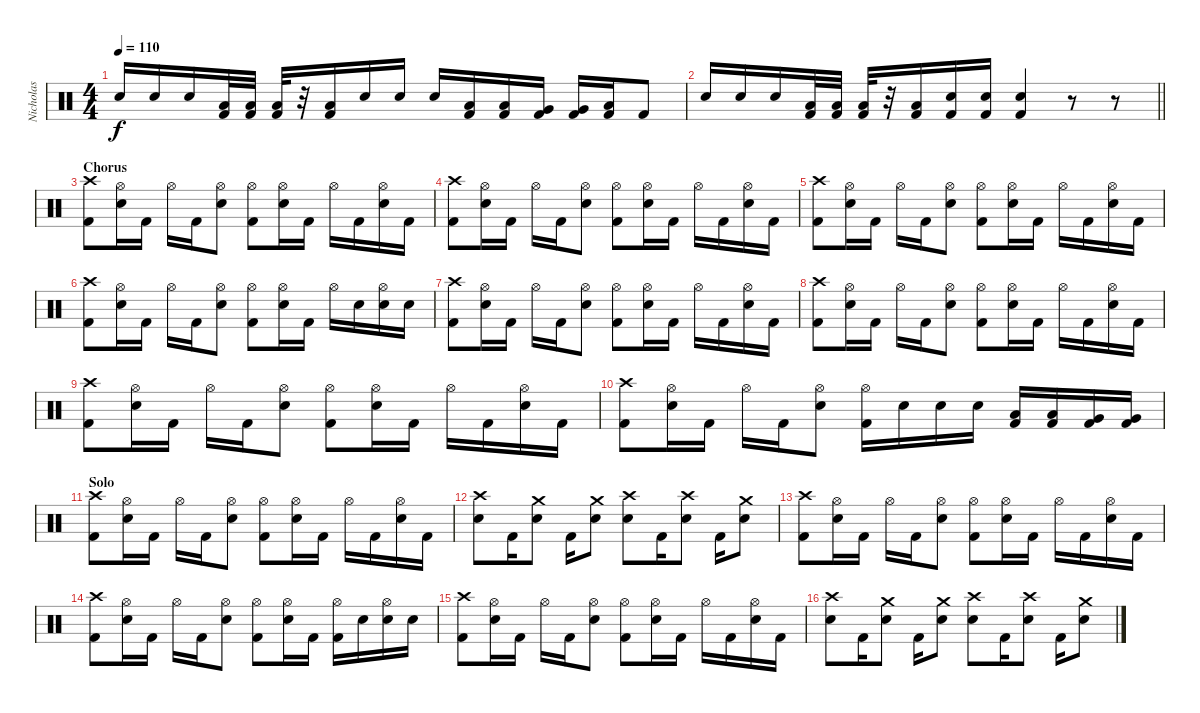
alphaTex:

\track ("Nicholas" "Nicholas") {instrument percussion}
\staff {score}
\articulation defaults
\ts (4 4)
\tempo 110
\clef neutral
\ks c "Snare (hit) 2".16{dy f} "Snare (hit) 2".16 "Snare (hit) 2".16
("Kick (hit) 2" "Low Tom (hit)").32 ("Kick (hit) 2" "Low Tom (hit)").32 ("Kick (hit) 2" "Low Tom (hit)").32 r.32 ("Kick (hit) 2" "Low Tom (hit)").16 "Snare (hit) 2".16 "Snare (hit) 2".16 "Snare (hit) 2".16 ("Kick (hit) 2" "Low Tom (hit)").16 ("Kick (hit) 2" "Low Tom (hit)").16 ("Kick (hit) 2" "Very Low Tom (hit)").16 ("Kick (hit) 2" "Very Low Tom (hit)").16 ("Kick (hit) 2" "Low Floor Tom (hit)").16 "Kick (hit) 2".8 |
\barLineRight lightlight "Snare (hit) 2".16 "Snare (hit) 2".16 "Snare (hit) 2".16
("Kick (hit) 2" "Low Tom (hit)").32 ("Kick (hit) 2" "Low Tom (hit)").32 ("Kick (hit) 2" "Low Tom (hit)").32 r.32 ("Kick (hit) 2" "Low Tom (hit)").16 ("Kick (hit) 2" "Snare (hit) 2").16 ("Kick (hit) 2" "Snare (hit) 2").16 ("Kick (hit) 2" "Snare (hit) 2").4 r.8 r.8 |
\section ("" "Chorus")
("Crash high (hit)" "Kick (hit) 2").8 ("Hi-Hat (open)" "Snare (hit) 2").16 "Kick (hit) 2".16 "Hi-Hat (open)".16 "Kick (hit) 2".16 ("Hi-Hat (open)" "Snare (hit) 2").8 ("Hi-Hat (open)" "Kick (hit) 2").8 ("Hi-Hat (open)" "Snare (hit) 2").16 "Kick (hit) 2".16 "Hi-Hat (open)".16 "Kick (hit) 2".16 ("Hi-Hat (open)" "Snare (hit) 2").16 "Kick (hit) 2".16 |
("Crash high (hit)" "Kick (hit) 2").8 ("Hi-Hat (open)" "Snare (hit) 2").16 "Kick (hit) 2".16 "Hi-Hat (open)".16 "Kick (hit) 2".16 ("Hi-Hat (open)" "Snare (hit) 2").8 ("Hi-Hat (open)" "Kick (hit) 2").8 ("Hi-Hat (open)" "Snare (hit) 2").16 "Kick (hit) 2".16 "Hi-Hat (open)".16 "Kick (hit) 2".16 ("Hi-Hat (open)" "Snare (hit) 2").16 "Kick (hit) 2".16 |
("Crash high (hit)" "Kick (hit) 2").8 ("Hi-Hat (open)" "Snare (hit) 2").16 "Kick (hit) 2".16 "Hi-Hat (open)".16 "Kick (hit) 2".16 ("Hi-Hat (open)" "Snare (hit) 2").8 ("Hi-Hat (open)" "Kick (hit) 2").8 ("Hi-Hat (open)" "Snare (hit) 2").16 "Kick (hit) 2".16 "Hi-Hat (open)".16 "Kick (hit) 2".16 ("Hi-Hat (open)" "Snare (hit) 2").16 "Kick (hit) 2".16 |
("Crash high (hit)" "Kick (hit) 2").8 ("Hi-Hat (open)" "Snare (hit) 2").16 "Kick (hit) 2".16 "Hi-Hat (open)".16 "Kick (hit) 2".16 ("Hi-Hat (open)" "Snare (hit) 2").8 ("Hi-Hat (open)" "Kick (hit) 2").8 ("Hi-Hat (open)" "Snare (hit) 2").16 "Kick (hit) 2".16 "Hi-Hat (open)".16 "Snare (hit) 2".16 ("Hi-Hat (open)" "Snare (hit) 2").16 "Snare (hit) 2".16 |
("Crash high (hit)" "Kick (hit) 2").8 ("Hi-Hat (open)" "Snare (hit) 2").16 "Kick (hit) 2".16 "Hi-Hat (open)".16 "Kick (hit) 2".16 ("Hi-Hat (open)" "Snare (hit) 2").8 ("Hi-Hat (open)" "Kick (hit) 2").8 ("Hi-Hat (open)" "Snare (hit) 2").16 "Kick (hit) 2".16 "Hi-Hat (open)".16 "Kick (hit) 2".16 ("Hi-Hat (open)" "Snare (hit) 2").16 "Kick (hit) 2".16 |
("Crash high (hit)" "Kick (hit) 2").8 ("Hi-Hat (open)" "Snare (hit) 2").16 "Kick (hit) 2".16 "Hi-Hat (open)".16 "Kick (hit) 2".16 ("Hi-Hat (open)" "Snare (hit) 2").8 ("Hi-Hat (open)" "Kick (hit) 2").8 ("Hi-Hat (open)" "Snare (hit) 2").16 "Kick (hit) 2".16 "Hi-Hat (open)".16 "Kick (hit) 2".16 ("Hi-Hat (open)" "Snare (hit) 2").16 "Kick (hit) 2".16 |
("Crash high (hit)" "Kick (hit) 2").8 ("Hi-Hat (open)" "Snare (hit) 2").16 "Kick (hit) 2".16 "Hi-Hat (open)".16 "Kick (hit) 2".16 ("Hi-Hat (open)" "Snare (hit) 2").8 ("Hi-Hat (open)" "Kick (hit) 2").8 ("Hi-Hat (open)" "Snare (hit) 2").16 "Kick (hit) 2".16 "Hi-Hat (open)".16 "Kick (hit) 2".16 ("Hi-Hat (open)" "Snare (hit) 2").16 "Kick (hit) 2".16 |
("Crash high (hit)" "Kick (hit) 2").8 ("Hi-Hat (open)" "Snare (hit) 2").16 "Kick (hit) 2".16 "Hi-Hat (open)".16 "Kick (hit) 2".16 ("Hi-Hat (open)" "Snare (hit) 2").8 ("Hi-Hat (open)" "Kick (hit) 2").16 "Snare (hit) 2".16 "Snare (hit) 2".16 "Snare (hit) 2".16 ("Kick (hit) 2" "Low Tom (hit)").16 ("Kick (hit) 2" "Low Tom (hit)").16 ("Kick (hit) 2" "Very Low Tom (hit)").16 ("Kick (hit) 2" "Very Low Tom (hit)").16 |
\section ("" "Solo")
("Crash high (hit)" "Kick (hit) 2").8 ("Hi-Hat (open)" "Snare (hit) 2").16 "Kick (hit) 2".16 "Hi-Hat (open)".16 "Kick (hit) 2".16 ("Hi-Hat (open)" "Snare (hit) 2").8 ("Hi-Hat (open)" "Kick (hit) 2").8 ("Hi-Hat (open)" "Snare (hit) 2").16 "Kick (hit) 2".16 "Hi-Hat (open)".16 "Kick (hit) 2".16 ("Hi-Hat (open)" "Snare (hit) 2").16 "Kick (hit) 2".16 |
("Crash high (hit)" "Snare (hit) 2").8 "Kick (hit) 2".16 ("Crash medium (hit)" "Snare (hit) 2").8 "Kick (hit) 2".16 ("Crash medium (hit)" "Snare (hit) 2").8 ("Crash high (hit)" "Snare (hit) 2").8 "Kick (hit) 2".16 ("Crash high (hit)" "Snare (hit) 2").8 "Kick (hit) 2".16 ("Crash medium (hit)" "Snare (hit) 2").8 |
("Crash high (hit)" "Kick (hit) 2").8 ("Hi-Hat (open)" "Snare (hit) 2").16 "Kick (hit) 2".16 "Hi-Hat (open)".16 "Kick (hit) 2".16 ("Hi-Hat (open)" "Snare (hit) 2").8 ("Hi-Hat (open)" "Kick (hit) 2").8 ("Hi-Hat (open)" "Snare (hit) 2").16 "Kick (hit) 2".16 "Hi-Hat (open)".16 "Kick (hit) 2".16 ("Hi-Hat (open)" "Snare (hit) 2").16 "Kick (hit) 2".16 |
("Crash high (hit)" "Kick (hit) 2").8 ("Hi-Hat (open)" "Snare (hit) 2").16 "Kick (hit) 2".16 "Hi-Hat (open)".16 "Kick (hit) 2".16 ("Hi-Hat (open)" "Snare (hit) 2").8 ("Hi-Hat (open)" "Kick (hit) 2").8 ("Hi-Hat (open)" "Snare (hit) 2").16 "Kick (hit) 2".16 ("Hi-Hat (open)" "Kick (hit) 2").16 "Snare (hit) 2".16 ("Hi-Hat (open)" "Snare (hit) 2").16 "Snare (hit) 2".16 |
("Crash high (hit)" "Kick (hit) 2").8 ("Hi-Hat (open)" "Snare (hit) 2").16 "Kick (hit) 2".16 "Hi-Hat (open)".16 "Kick (hit) 2".16 ("Hi-Hat (open)" "Snare (hit) 2").8 ("Hi-Hat (open)" "Kick (hit) 2").8 ("Hi-Hat (open)" "Snare (hit) 2").16 "Kick (hit) 2".16 "Hi-Hat (open)".16 "Kick (hit) 2".16 ("Hi-Hat (open)" "Snare (hit) 2").16 "Kick (hit) 2".16 |
("Crash high (hit)" "Snare (hit) 2").8 "Kick (hit) 2".16 ("Crash medium (hit)" "Snare (hit) 2").8 "Kick (hit) 2".16 ("Crash medium (hit)" "Snare (hit) 2").8 ("Crash high (hit)" "Snare (hit) 2").8 "Kick (hit) 2".16 ("Crash high (hit)" "Snare (hit) 2").8 "Kick (hit) 2".16 ("Crash medium (hit)" "Snare (hit) 2").8
